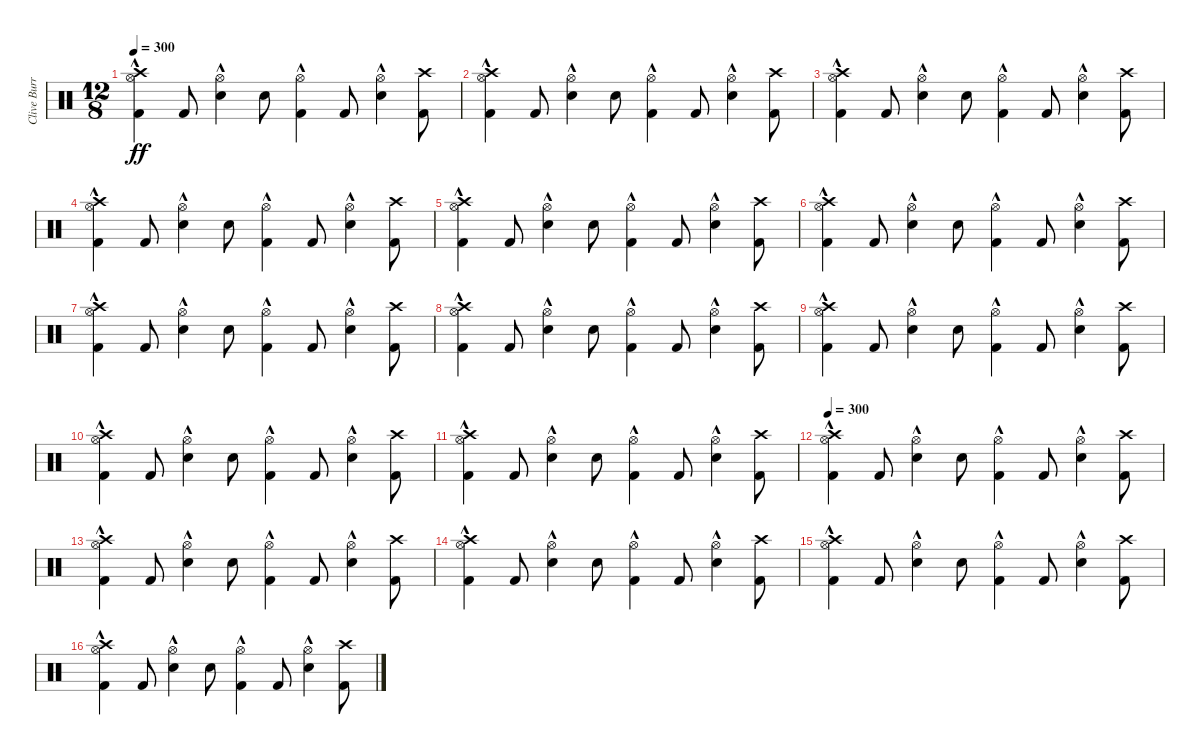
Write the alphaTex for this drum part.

\track ("Clive Burr" "Clive Burr") {instrument percussion}
\staff {score}
\articulation defaults
\ts (12 8)
\tempo 300
\clef neutral
\ks c
("Kick (hit) 2"{hac} "Hi-Hat (open)" "Crash high (hit)").4{dy ff} "Kick (hit) 2".8 ("Snare (hit) 2"{hac} "Hi-Hat (open)").4 "Snare (hit) 2".8 ("Kick (hit) 2"{hac} "Hi-Hat (open)").4 "Kick (hit) 2".8 ("Snare (hit) 2"{hac} "Hi-Hat (open)").4 ("Kick (hit) 2" "Crash high (hit)").8 |
("Kick (hit) 2"{hac} "Hi-Hat (open)" "Crash high (hit)").4 "Kick (hit) 2".8 ("Snare (hit) 2"{hac} "Hi-Hat (open)").4 "Snare (hit) 2".8 ("Kick (hit) 2"{hac} "Hi-Hat (open)").4 "Kick (hit) 2".8 ("Snare (hit) 2"{hac} "Hi-Hat (open)").4 ("Kick (hit) 2" "Crash high (hit)").8 |
("Kick (hit) 2"{hac} "Hi-Hat (open)" "Crash high (hit)").4 "Kick (hit) 2".8 ("Snare (hit) 2"{hac} "Hi-Hat (open)").4 "Snare (hit) 2".8 ("Kick (hit) 2"{hac} "Hi-Hat (open)").4 "Kick (hit) 2".8 ("Snare (hit) 2"{hac} "Hi-Hat (open)").4 ("Kick (hit) 2" "Crash high (hit)").8 |
("Kick (hit) 2"{hac} "Hi-Hat (open)" "Crash high (hit)").4 "Kick (hit) 2".8 ("Snare (hit) 2"{hac} "Hi-Hat (open)").4 "Snare (hit) 2".8 ("Kick (hit) 2"{hac} "Hi-Hat (open)").4 "Kick (hit) 2".8 ("Snare (hit) 2"{hac} "Hi-Hat (open)").4 ("Kick (hit) 2" "Crash high (hit)").8 |
("Kick (hit) 2"{hac} "Hi-Hat (open)" "Crash high (hit)").4 "Kick (hit) 2".8 ("Snare (hit) 2"{hac} "Hi-Hat (open)").4 "Snare (hit) 2".8 ("Kick (hit) 2"{hac} "Hi-Hat (open)").4 "Kick (hit) 2".8 ("Snare (hit) 2"{hac} "Hi-Hat (open)").4 ("Kick (hit) 2" "Crash high (hit)").8 |
("Kick (hit) 2"{hac} "Hi-Hat (open)" "Crash high (hit)").4 "Kick (hit) 2".8 ("Snare (hit) 2"{hac} "Hi-Hat (open)").4 "Snare (hit) 2".8 ("Kick (hit) 2"{hac} "Hi-Hat (open)").4 "Kick (hit) 2".8 ("Snare (hit) 2"{hac} "Hi-Hat (open)").4 ("Kick (hit) 2" "Crash high (hit)").8 |
("Kick (hit) 2"{hac} "Hi-Hat (open)" "Crash high (hit)").4 "Kick (hit) 2".8 ("Snare (hit) 2"{hac} "Hi-Hat (open)").4 "Snare (hit) 2".8 ("Kick (hit) 2"{hac} "Hi-Hat (open)").4 "Kick (hit) 2".8 ("Snare (hit) 2"{hac} "Hi-Hat (open)").4 ("Kick (hit) 2" "Crash high (hit)").8 |
("Kick (hit) 2"{hac} "Hi-Hat (open)" "Crash high (hit)").4 "Kick (hit) 2".8 ("Snare (hit) 2"{hac} "Hi-Hat (open)").4 "Snare (hit) 2".8 ("Kick (hit) 2"{hac} "Hi-Hat (open)").4 "Kick (hit) 2".8 ("Snare (hit) 2"{hac} "Hi-Hat (open)").4 ("Kick (hit) 2" "Crash high (hit)").8 |
("Kick (hit) 2"{hac} "Hi-Hat (open)" "Crash high (hit)").4 "Kick (hit) 2".8 ("Snare (hit) 2"{hac} "Hi-Hat (open)").4 "Snare (hit) 2".8 ("Kick (hit) 2"{hac} "Hi-Hat (open)").4 "Kick (hit) 2".8 ("Snare (hit) 2"{hac} "Hi-Hat (open)").4 ("Kick (hit) 2" "Crash high (hit)").8 |
("Kick (hit) 2"{hac} "Hi-Hat (open)" "Crash high (hit)").4 "Kick (hit) 2".8 ("Snare (hit) 2"{hac} "Hi-Hat (open)").4 "Snare (hit) 2".8 ("Kick (hit) 2"{hac} "Hi-Hat (open)").4 "Kick (hit) 2".8 ("Snare (hit) 2"{hac} "Hi-Hat (open)").4 ("Kick (hit) 2" "Crash high (hit)").8 |
("Kick (hit) 2"{hac} "Hi-Hat (open)" "Crash high (hit)").4 "Kick (hit) 2".8 ("Snare (hit) 2"{hac} "Hi-Hat (open)").4 "Snare (hit) 2".8 ("Kick (hit) 2"{hac} "Hi-Hat (open)").4 "Kick (hit) 2".8 ("Snare (hit) 2"{hac} "Hi-Hat (open)").4 ("Kick (hit) 2" "Crash high (hit)").8 |
\tempo 300
("Kick (hit) 2"{hac} "Hi-Hat (open)" "Crash high (hit)").4 "Kick (hit) 2".8 ("Snare (hit) 2"{hac} "Hi-Hat (open)").4 "Snare (hit) 2".8 ("Kick (hit) 2"{hac} "Hi-Hat (open)").4 "Kick (hit) 2".8 ("Snare (hit) 2"{hac} "Hi-Hat (open)").4 ("Kick (hit) 2" "Crash high (hit)").8 |
("Kick (hit) 2"{hac} "Hi-Hat (open)" "Crash high (hit)").4 "Kick (hit) 2".8 ("Snare (hit) 2"{hac} "Hi-Hat (open)").4 "Snare (hit) 2".8 ("Kick (hit) 2"{hac} "Hi-Hat (open)").4 "Kick (hit) 2".8 ("Snare (hit) 2"{hac} "Hi-Hat (open)").4 ("Kick (hit) 2" "Crash high (hit)").8 |
("Kick (hit) 2"{hac} "Hi-Hat (open)" "Crash high (hit)").4 "Kick (hit) 2".8 ("Snare (hit) 2"{hac} "Hi-Hat (open)").4 "Snare (hit) 2".8 ("Kick (hit) 2"{hac} "Hi-Hat (open)").4 "Kick (hit) 2".8 ("Snare (hit) 2"{hac} "Hi-Hat (open)").4 ("Kick (hit) 2" "Crash high (hit)").8 |
("Kick (hit) 2"{hac} "Hi-Hat (open)" "Crash high (hit)").4 "Kick (hit) 2".8 ("Snare (hit) 2"{hac} "Hi-Hat (open)").4 "Snare (hit) 2".8 ("Kick (hit) 2"{hac} "Hi-Hat (open)").4 "Kick (hit) 2".8 ("Snare (hit) 2"{hac} "Hi-Hat (open)").4 ("Kick (hit) 2" "Crash high (hit)").8 |
("Kick (hit) 2"{hac} "Hi-Hat (open)" "Crash high (hit)").4 "Kick (hit) 2".8 ("Snare (hit) 2"{hac} "Hi-Hat (open)").4 "Snare (hit) 2".8 ("Kick (hit) 2"{hac} "Hi-Hat (open)").4 "Kick (hit) 2".8 ("Snare (hit) 2"{hac} "Hi-Hat (open)").4 ("Kick (hit) 2" "Crash high (hit)").8
